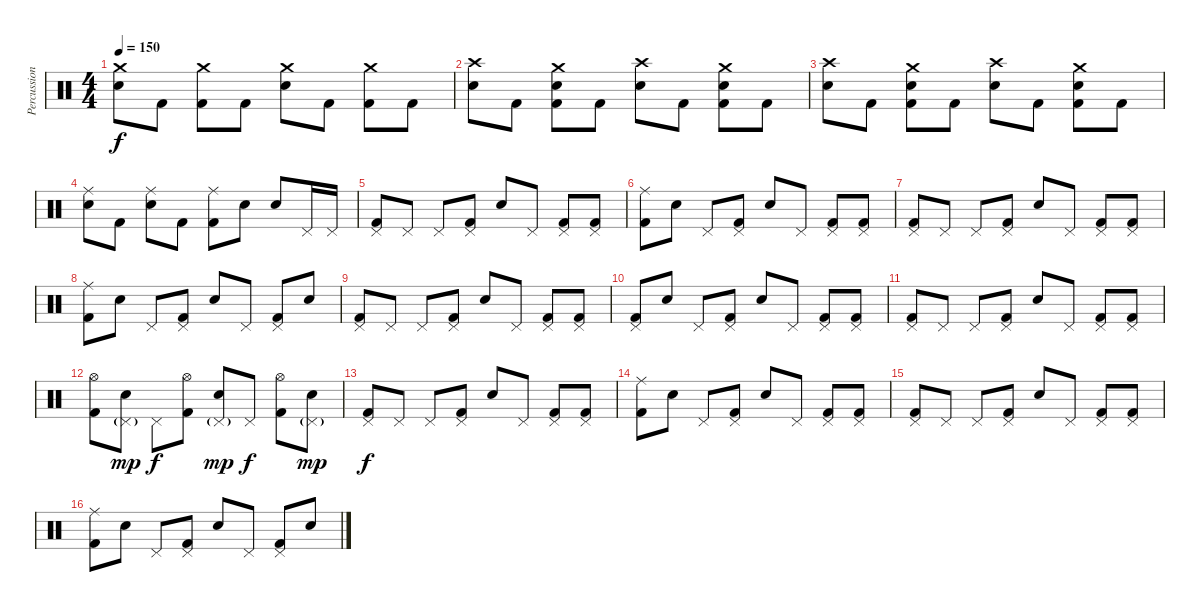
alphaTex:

\track ("Percussion" "Percussion") {instrument percussion}
\staff {score}
\articulation defaults
\ts (4 4)
\tempo 150
\clef neutral
\ks c
("Crash medium (hit)" "Snare (hit) 2").8{dy f} "Kick (hit) 2".8 ("Crash medium (hit)" "Kick (hit) 2").8 "Kick (hit) 2".8 ("Crash medium (hit)" "Snare (hit) 2").8 "Kick (hit) 2".8 ("Crash medium (hit)" "Kick (hit) 2").8 "Kick (hit) 2".8 |
("Crash high (hit)" "Snare (hit) 2").8 "Kick (hit) 2".8 ("Crash medium (hit)" "Snare (hit) 2" "Kick (hit) 2").8 "Kick (hit) 2".8 ("Crash high (hit)" "Snare (hit) 2").8 "Kick (hit) 2".8 ("Crash medium (hit)" "Snare (hit) 2" "Kick (hit) 2").8 "Kick (hit) 2".8 |
("Crash high (hit)" "Snare (hit) 2").8 "Kick (hit) 2".8 ("Crash medium (hit)" "Snare (hit) 2" "Kick (hit) 2").8 "Kick (hit) 2".8 ("Crash high (hit)" "Snare (hit) 2").8 "Kick (hit) 2".8 ("Crash medium (hit)" "Snare (hit) 2" "Kick (hit) 2").8 "Kick (hit) 2".8 |
("Ride (middle)" "Snare (hit) 2").8 "Kick (hit) 2".8 ("Ride (middle)" "Snare (hit) 2").8 "Kick (hit) 2".8 ("Ride (middle)" "Kick (hit) 2").8 "Snare (hit) 2".8 "Snare (hit) 2".8 "Pedal Hi-Hat (hit)".16 "Pedal Hi-Hat (hit)".16 |
("Pedal Hi-Hat (hit)" "Kick (hit) 2").8 "Pedal Hi-Hat (hit)".8 "Pedal Hi-Hat (hit)".8 ("Pedal Hi-Hat (hit)" "Kick (hit) 2").8 "Snare (hit) 2".8 "Pedal Hi-Hat (hit)".8 ("Pedal Hi-Hat (hit)" "Kick (hit) 2").8 ("Pedal Hi-Hat (hit)" "Kick (hit) 2").8 |
("Ride (middle)" "Kick (hit) 2").8 "Snare (hit) 2".8 "Pedal Hi-Hat (hit)".8 ("Pedal Hi-Hat (hit)" "Kick (hit) 2").8 "Snare (hit) 2".8 "Pedal Hi-Hat (hit)".8 ("Pedal Hi-Hat (hit)" "Kick (hit) 2").8 ("Pedal Hi-Hat (hit)" "Kick (hit) 2").8 |
("Pedal Hi-Hat (hit)" "Kick (hit) 2").8 "Pedal Hi-Hat (hit)".8 "Pedal Hi-Hat (hit)".8 ("Pedal Hi-Hat (hit)" "Kick (hit) 2").8 "Snare (hit) 2".8 "Pedal Hi-Hat (hit)".8 ("Pedal Hi-Hat (hit)" "Kick (hit) 2").8 ("Pedal Hi-Hat (hit)" "Kick (hit) 2").8 |
("Ride (middle)" "Kick (hit) 2").8 "Snare (hit) 2".8 "Pedal Hi-Hat (hit)".8 ("Pedal Hi-Hat (hit)" "Kick (hit) 2").8 "Snare (hit) 2".8 "Pedal Hi-Hat (hit)".8 ("Pedal Hi-Hat (hit)" "Kick (hit) 2").8 "Snare (hit) 2".8 |
("Pedal Hi-Hat (hit)" "Kick (hit) 2").8 "Pedal Hi-Hat (hit)".8 "Pedal Hi-Hat (hit)".8 ("Pedal Hi-Hat (hit)" "Kick (hit) 2").8 "Snare (hit) 2".8 "Pedal Hi-Hat (hit)".8 ("Pedal Hi-Hat (hit)" "Kick (hit) 2").8 ("Pedal Hi-Hat (hit)" "Kick (hit) 2").8 |
("Pedal Hi-Hat (hit)" "Kick (hit) 2").8 "Snare (hit) 2".8 "Pedal Hi-Hat (hit)".8 ("Pedal Hi-Hat (hit)" "Kick (hit) 2").8 "Snare (hit) 2".8 "Pedal Hi-Hat (hit)".8 ("Pedal Hi-Hat (hit)" "Kick (hit) 2").8 ("Pedal Hi-Hat (hit)" "Kick (hit) 2").8 |
("Pedal Hi-Hat (hit)" "Kick (hit) 2").8 "Pedal Hi-Hat (hit)".8 "Pedal Hi-Hat (hit)".8 ("Pedal Hi-Hat (hit)" "Kick (hit) 2").8 "Snare (hit) 2".8 "Pedal Hi-Hat (hit)".8 ("Pedal Hi-Hat (hit)" "Kick (hit) 2").8 ("Pedal Hi-Hat (hit)" "Kick (hit) 2").8 |
("Hi-Hat (open)" "Kick (hit) 2").8 ("Pedal Hi-Hat (hit)"{g} "Snare (hit) 2").8{dy mp} "Pedal Hi-Hat (hit)".8{dy f} ("Hi-Hat (open)" "Kick (hit) 2").8 ("Pedal Hi-Hat (hit)"{g} "Snare (hit) 2").8{dy mp} "Pedal Hi-Hat (hit)".8{dy f} ("Hi-Hat (open)" "Kick (hit) 2").8 ("Pedal Hi-Hat (hit)"{g} "Snare (hit) 2").8{dy mp} |
("Pedal Hi-Hat (hit)" "Kick (hit) 2").8{dy f} "Pedal Hi-Hat (hit)".8 "Pedal Hi-Hat (hit)".8 ("Pedal Hi-Hat (hit)" "Kick (hit) 2").8 "Snare (hit) 2".8 "Pedal Hi-Hat (hit)".8 ("Pedal Hi-Hat (hit)" "Kick (hit) 2").8 ("Pedal Hi-Hat (hit)" "Kick (hit) 2").8 |
("Ride (middle)" "Kick (hit) 2").8 "Snare (hit) 2".8 "Pedal Hi-Hat (hit)".8 ("Pedal Hi-Hat (hit)" "Kick (hit) 2").8 "Snare (hit) 2".8 "Pedal Hi-Hat (hit)".8 ("Pedal Hi-Hat (hit)" "Kick (hit) 2").8 ("Pedal Hi-Hat (hit)" "Kick (hit) 2").8 |
("Pedal Hi-Hat (hit)" "Kick (hit) 2").8 "Pedal Hi-Hat (hit)".8 "Pedal Hi-Hat (hit)".8 ("Pedal Hi-Hat (hit)" "Kick (hit) 2").8 "Snare (hit) 2".8 "Pedal Hi-Hat (hit)".8 ("Pedal Hi-Hat (hit)" "Kick (hit) 2").8 ("Pedal Hi-Hat (hit)" "Kick (hit) 2").8 |
("Ride (middle)" "Kick (hit) 2").8 "Snare (hit) 2".8 "Pedal Hi-Hat (hit)".8 ("Pedal Hi-Hat (hit)" "Kick (hit) 2").8 "Snare (hit) 2".8 "Pedal Hi-Hat (hit)".8 ("Pedal Hi-Hat (hit)" "Kick (hit) 2").8 "Snare (hit) 2".8
